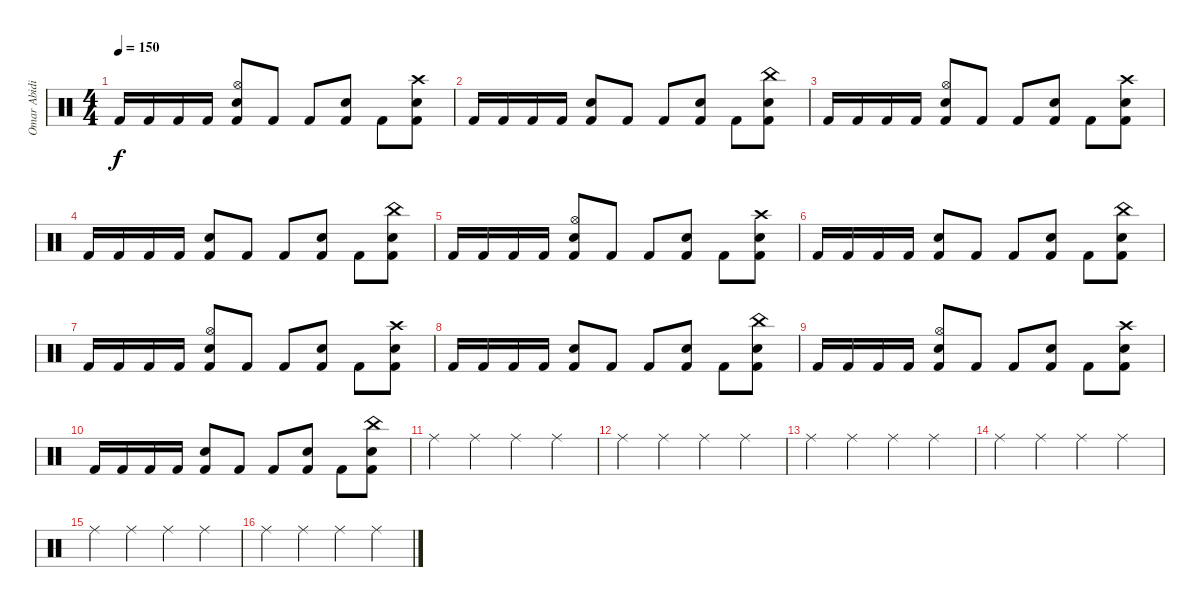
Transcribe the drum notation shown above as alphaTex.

\track ("Omar Abidi" "Omar Abidi") {instrument percussion}
\staff {score}
\articulation defaults
\ts (4 4)
\tempo 150
\clef neutral
\ks c "Kick (hit) 2".16{dy f} "Kick (hit) 2".16 "Kick (hit) 2".16 "Kick (hit) 2".16
("Hi-Hat (open)" "Snare (hit) 2" "Kick (hit) 2").8 "Kick (hit) 2".8 "Kick (hit) 2".8 ("Snare (hit) 2" "Kick (hit) 2").8 "Kick (hit) 2".8 ("Crash high (hit)" "Snare (hit) 2" "Kick (hit) 2").8 |
"Kick (hit) 2".16 "Kick (hit) 2".16 "Kick (hit) 2".16 "Kick (hit) 2".16 ("Snare (hit) 2" "Kick (hit) 2").8 "Kick (hit) 2".8 "Kick (hit) 2".8 ("Snare (hit) 2" "Kick (hit) 2").8 "Kick (hit) 2".8 ("China (hit)" "Snare (hit) 2" "Kick (hit) 2").8 |
"Kick (hit) 2".16 "Kick (hit) 2".16 "Kick (hit) 2".16 "Kick (hit) 2".16 ("Hi-Hat (open)" "Snare (hit) 2" "Kick (hit) 2").8 "Kick (hit) 2".8 "Kick (hit) 2".8 ("Snare (hit) 2" "Kick (hit) 2").8 "Kick (hit) 2".8 ("Crash high (hit)" "Snare (hit) 2" "Kick (hit) 2").8 |
"Kick (hit) 2".16 "Kick (hit) 2".16 "Kick (hit) 2".16 "Kick (hit) 2".16 ("Snare (hit) 2" "Kick (hit) 2").8 "Kick (hit) 2".8 "Kick (hit) 2".8 ("Snare (hit) 2" "Kick (hit) 2").8 "Kick (hit) 2".8 ("China (hit)" "Snare (hit) 2" "Kick (hit) 2").8 |
"Kick (hit) 2".16 "Kick (hit) 2".16 "Kick (hit) 2".16 "Kick (hit) 2".16 ("Hi-Hat (open)" "Snare (hit) 2" "Kick (hit) 2").8 "Kick (hit) 2".8 "Kick (hit) 2".8 ("Snare (hit) 2" "Kick (hit) 2").8 "Kick (hit) 2".8 ("Crash high (hit)" "Snare (hit) 2" "Kick (hit) 2").8 |
"Kick (hit) 2".16 "Kick (hit) 2".16 "Kick (hit) 2".16 "Kick (hit) 2".16 ("Snare (hit) 2" "Kick (hit) 2").8 "Kick (hit) 2".8 "Kick (hit) 2".8 ("Snare (hit) 2" "Kick (hit) 2").8 "Kick (hit) 2".8 ("China (hit)" "Snare (hit) 2" "Kick (hit) 2").8 |
"Kick (hit) 2".16 "Kick (hit) 2".16 "Kick (hit) 2".16 "Kick (hit) 2".16 ("Hi-Hat (open)" "Snare (hit) 2" "Kick (hit) 2").8 "Kick (hit) 2".8 "Kick (hit) 2".8 ("Snare (hit) 2" "Kick (hit) 2").8 "Kick (hit) 2".8 ("Crash high (hit)" "Snare (hit) 2" "Kick (hit) 2").8 |
"Kick (hit) 2".16 "Kick (hit) 2".16 "Kick (hit) 2".16 "Kick (hit) 2".16 ("Snare (hit) 2" "Kick (hit) 2").8 "Kick (hit) 2".8 "Kick (hit) 2".8 ("Snare (hit) 2" "Kick (hit) 2").8 "Kick (hit) 2".8 ("China (hit)" "Snare (hit) 2" "Kick (hit) 2").8 |
"Kick (hit) 2".16 "Kick (hit) 2".16 "Kick (hit) 2".16 "Kick (hit) 2".16 ("Hi-Hat (open)" "Snare (hit) 2" "Kick (hit) 2").8 "Kick (hit) 2".8 "Kick (hit) 2".8 ("Snare (hit) 2" "Kick (hit) 2").8 "Kick (hit) 2".8 ("Crash high (hit)" "Snare (hit) 2" "Kick (hit) 2").8 |
"Kick (hit) 2".16 "Kick (hit) 2".16 "Kick (hit) 2".16 "Kick (hit) 2".16 ("Snare (hit) 2" "Kick (hit) 2").8 "Kick (hit) 2".8 "Kick (hit) 2".8 ("Snare (hit) 2" "Kick (hit) 2").8 "Kick (hit) 2".8 ("China (hit)" "Snare (hit) 2" "Kick (hit) 2").8 |
"Ride (middle)".4 "Ride (middle)".4 "Ride (middle)".4 "Ride (middle)".4 |
"Ride (middle)".4 "Ride (middle)".4 "Ride (middle)".4 "Ride (middle)".4 |
"Ride (middle)".4 "Ride (middle)".4 "Ride (middle)".4 "Ride (middle)".4 |
"Ride (middle)".4 "Ride (middle)".4 "Ride (middle)".4 "Ride (middle)".4 |
"Ride (middle)".4 "Ride (middle)".4 "Ride (middle)".4 "Ride (middle)".4 |
"Ride (middle)".4 "Ride (middle)".4 "Ride (middle)".4 "Ride (middle)".4
